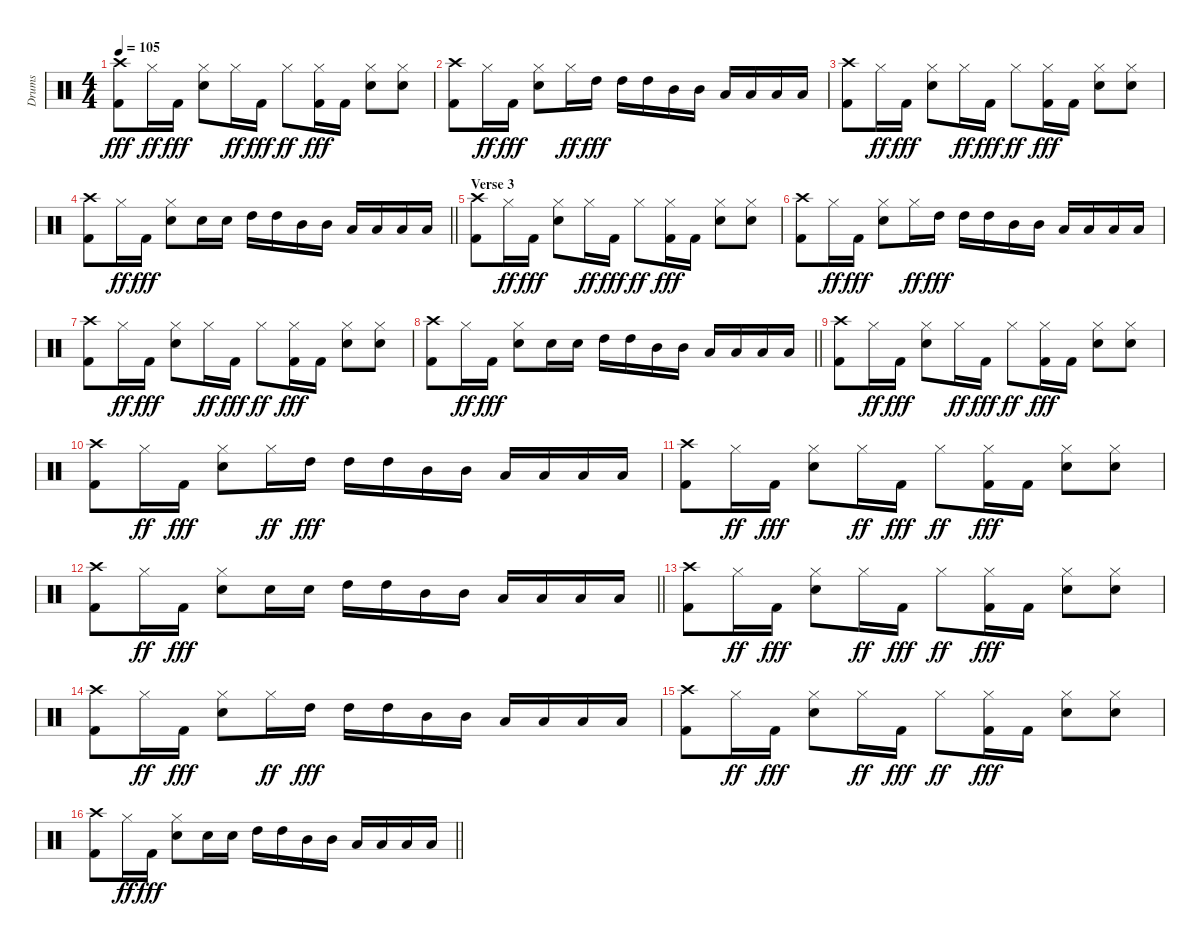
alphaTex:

\track ("Drums" "Drums") {instrument percussion}
\staff {score}
\articulation defaults
\ts (4 4)
\tempo 105
\clef neutral
\ks c
("Crash high (hit)" "Kick (hit) 2").8{dy fff} "Hi-Hat (closed)".16{dy ff} "Kick (hit) 2".16{dy fff} ("Hi-Hat (closed)" "Snare (hit) 2").8 "Hi-Hat (closed)".16{dy ff} "Kick (hit) 2".16{dy fff} "Hi-Hat (closed)".8{dy ff} ("Hi-Hat (closed)" "Kick (hit) 2").16{dy fff} "Kick (hit) 2".16 ("Hi-Hat (closed)" "Snare (hit) 2").8 ("Hi-Hat (closed)" "Snare (hit) 2").8 |
("Crash high (hit)" "Kick (hit) 2").8 "Hi-Hat (closed)".16{dy ff} "Kick (hit) 2".16{dy fff} ("Hi-Hat (closed)" "Snare (hit) 2").8 "Hi-Hat (closed)".16{dy ff} "High Tom (hit)".16{dy fff} "High Tom (hit)".16 "High Tom (hit)".16 "Mid Tom (hit)".16 "Mid Tom (hit)".16 "Low Tom (hit)".16 "Low Tom (hit)".16 "Low Tom (hit)".16 "Low Tom (hit)".16 |
("Crash high (hit)" "Kick (hit) 2").8 "Hi-Hat (closed)".16{dy ff} "Kick (hit) 2".16{dy fff} ("Hi-Hat (closed)" "Snare (hit) 2").8 "Hi-Hat (closed)".16{dy ff} "Kick (hit) 2".16{dy fff} "Hi-Hat (closed)".8{dy ff} ("Hi-Hat (closed)" "Kick (hit) 2").16{dy fff} "Kick (hit) 2".16 ("Hi-Hat (closed)" "Snare (hit) 2").8 ("Hi-Hat (closed)" "Snare (hit) 2").8 |
\barLineRight lightlight
("Crash high (hit)" "Kick (hit) 2").8 "Hi-Hat (closed)".16{dy ff} "Kick (hit) 2".16{dy fff} ("Hi-Hat (closed)" "Snare (hit) 2").8 "Snare (hit) 2".16 "Snare (hit) 2".16 "High Tom (hit)".16 "High Tom (hit)".16 "Mid Tom (hit)".16 "Mid Tom (hit)".16 "Low Tom (hit)".16 "Low Tom (hit)".16 "Low Tom (hit)".16 "Low Tom (hit)".16 |
\section ("" "Verse 3")
("Crash high (hit)" "Kick (hit) 2").8 "Hi-Hat (closed)".16{dy ff} "Kick (hit) 2".16{dy fff} ("Hi-Hat (closed)" "Snare (hit) 2").8 "Hi-Hat (closed)".16{dy ff} "Kick (hit) 2".16{dy fff} "Hi-Hat (closed)".8{dy ff} ("Hi-Hat (closed)" "Kick (hit) 2").16{dy fff} "Kick (hit) 2".16 ("Hi-Hat (closed)" "Snare (hit) 2").8 ("Hi-Hat (closed)" "Snare (hit) 2").8 |
("Crash high (hit)" "Kick (hit) 2").8 "Hi-Hat (closed)".16{dy ff} "Kick (hit) 2".16{dy fff} ("Hi-Hat (closed)" "Snare (hit) 2").8 "Hi-Hat (closed)".16{dy ff} "High Tom (hit)".16{dy fff} "High Tom (hit)".16 "High Tom (hit)".16 "Mid Tom (hit)".16 "Mid Tom (hit)".16 "Low Tom (hit)".16 "Low Tom (hit)".16 "Low Tom (hit)".16 "Low Tom (hit)".16 |
("Crash high (hit)" "Kick (hit) 2").8 "Hi-Hat (closed)".16{dy ff} "Kick (hit) 2".16{dy fff} ("Hi-Hat (closed)" "Snare (hit) 2").8 "Hi-Hat (closed)".16{dy ff} "Kick (hit) 2".16{dy fff} "Hi-Hat (closed)".8{dy ff} ("Hi-Hat (closed)" "Kick (hit) 2").16{dy fff} "Kick (hit) 2".16 ("Hi-Hat (closed)" "Snare (hit) 2").8 ("Hi-Hat (closed)" "Snare (hit) 2").8 |
\barLineRight lightlight
("Crash high (hit)" "Kick (hit) 2").8 "Hi-Hat (closed)".16{dy ff} "Kick (hit) 2".16{dy fff} ("Hi-Hat (closed)" "Snare (hit) 2").8 "Snare (hit) 2".16 "Snare (hit) 2".16 "High Tom (hit)".16 "High Tom (hit)".16 "Mid Tom (hit)".16 "Mid Tom (hit)".16 "Low Tom (hit)".16 "Low Tom (hit)".16 "Low Tom (hit)".16 "Low Tom (hit)".16 |
("Crash high (hit)" "Kick (hit) 2").8 "Hi-Hat (closed)".16{dy ff} "Kick (hit) 2".16{dy fff} ("Hi-Hat (closed)" "Snare (hit) 2").8 "Hi-Hat (closed)".16{dy ff} "Kick (hit) 2".16{dy fff} "Hi-Hat (closed)".8{dy ff} ("Hi-Hat (closed)" "Kick (hit) 2").16{dy fff} "Kick (hit) 2".16 ("Hi-Hat (closed)" "Snare (hit) 2").8 ("Hi-Hat (closed)" "Snare (hit) 2").8 |
("Crash high (hit)" "Kick (hit) 2").8 "Hi-Hat (closed)".16{dy ff} "Kick (hit) 2".16{dy fff} ("Hi-Hat (closed)" "Snare (hit) 2").8 "Hi-Hat (closed)".16{dy ff} "High Tom (hit)".16{dy fff} "High Tom (hit)".16 "High Tom (hit)".16 "Mid Tom (hit)".16 "Mid Tom (hit)".16 "Low Tom (hit)".16 "Low Tom (hit)".16 "Low Tom (hit)".16 "Low Tom (hit)".16 |
("Crash high (hit)" "Kick (hit) 2").8 "Hi-Hat (closed)".16{dy ff} "Kick (hit) 2".16{dy fff} ("Hi-Hat (closed)" "Snare (hit) 2").8 "Hi-Hat (closed)".16{dy ff} "Kick (hit) 2".16{dy fff} "Hi-Hat (closed)".8{dy ff} ("Hi-Hat (closed)" "Kick (hit) 2").16{dy fff} "Kick (hit) 2".16 ("Hi-Hat (closed)" "Snare (hit) 2").8 ("Hi-Hat (closed)" "Snare (hit) 2").8 |
\barLineRight lightlight
("Crash high (hit)" "Kick (hit) 2").8 "Hi-Hat (closed)".16{dy ff} "Kick (hit) 2".16{dy fff} ("Hi-Hat (closed)" "Snare (hit) 2").8 "Snare (hit) 2".16 "Snare (hit) 2".16 "High Tom (hit)".16 "High Tom (hit)".16 "Mid Tom (hit)".16 "Mid Tom (hit)".16 "Low Tom (hit)".16 "Low Tom (hit)".16 "Low Tom (hit)".16 "Low Tom (hit)".16 |
("Crash high (hit)" "Kick (hit) 2").8 "Hi-Hat (closed)".16{dy ff} "Kick (hit) 2".16{dy fff} ("Hi-Hat (closed)" "Snare (hit) 2").8 "Hi-Hat (closed)".16{dy ff} "Kick (hit) 2".16{dy fff} "Hi-Hat (closed)".8{dy ff} ("Hi-Hat (closed)" "Kick (hit) 2").16{dy fff} "Kick (hit) 2".16 ("Hi-Hat (closed)" "Snare (hit) 2").8 ("Hi-Hat (closed)" "Snare (hit) 2").8 |
("Crash high (hit)" "Kick (hit) 2").8 "Hi-Hat (closed)".16{dy ff} "Kick (hit) 2".16{dy fff} ("Hi-Hat (closed)" "Snare (hit) 2").8 "Hi-Hat (closed)".16{dy ff} "High Tom (hit)".16{dy fff} "High Tom (hit)".16 "High Tom (hit)".16 "Mid Tom (hit)".16 "Mid Tom (hit)".16 "Low Tom (hit)".16 "Low Tom (hit)".16 "Low Tom (hit)".16 "Low Tom (hit)".16 |
("Crash high (hit)" "Kick (hit) 2").8 "Hi-Hat (closed)".16{dy ff} "Kick (hit) 2".16{dy fff} ("Hi-Hat (closed)" "Snare (hit) 2").8 "Hi-Hat (closed)".16{dy ff} "Kick (hit) 2".16{dy fff} "Hi-Hat (closed)".8{dy ff} ("Hi-Hat (closed)" "Kick (hit) 2").16{dy fff} "Kick (hit) 2".16 ("Hi-Hat (closed)" "Snare (hit) 2").8 ("Hi-Hat (closed)" "Snare (hit) 2").8 |
\barLineRight lightlight
("Crash high (hit)" "Kick (hit) 2").8 "Hi-Hat (closed)".16{dy ff} "Kick (hit) 2".16{dy fff} ("Hi-Hat (closed)" "Snare (hit) 2").8 "Snare (hit) 2".16 "Snare (hit) 2".16 "High Tom (hit)".16 "High Tom (hit)".16 "Mid Tom (hit)".16 "Mid Tom (hit)".16 "Low Tom (hit)".16 "Low Tom (hit)".16 "Low Tom (hit)".16 "Low Tom (hit)".16
